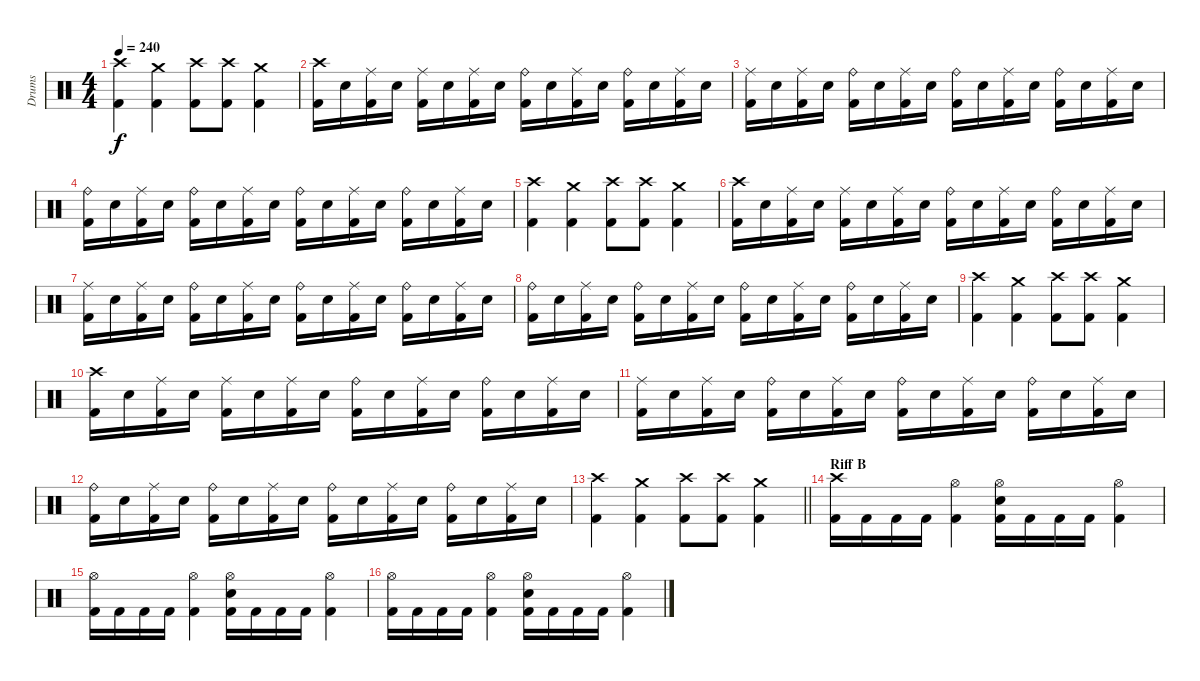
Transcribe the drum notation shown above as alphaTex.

\track ("Drums" "Drums") {instrument percussion}
\staff {score}
\articulation defaults
\ts (4 4)
\tempo 240
\clef neutral
\ks c
("Crash high (hit)" "Kick (hit) 2").4{dy f} ("Crash medium (hit)" "Kick (hit) 2").4 ("Crash high (hit)" "Kick (hit) 2").8 ("Crash high (hit)" "Kick (hit) 2").8 ("Crash medium (hit)" "Kick (hit) 2").4 |
("Crash high (hit)" "Kick (hit) 2").16 "Electric Snare (hit)".16 ("Ride (middle)" "Kick (hit) 2").16 "Electric Snare (hit)".16 ("Ride (middle)" "Kick (hit) 2").16 "Electric Snare (hit)".16 ("Ride (middle)" "Kick (hit) 2").16 "Electric Snare (hit)".16 ("Ride (bell)" "Kick (hit) 2").16 "Electric Snare (hit)".16 ("Ride (middle)" "Kick (hit) 2").16 "Electric Snare (hit)".16 ("Ride (bell)" "Kick (hit) 2").16 "Electric Snare (hit)".16 ("Ride (middle)" "Kick (hit) 2").16 "Electric Snare (hit)".16 |
("Ride (middle)" "Kick (hit) 2").16 "Electric Snare (hit)".16 ("Ride (middle)" "Kick (hit) 2").16 "Electric Snare (hit)".16 ("Ride (bell)" "Kick (hit) 2").16 "Electric Snare (hit)".16 ("Ride (middle)" "Kick (hit) 2").16 "Electric Snare (hit)".16 ("Ride (bell)" "Kick (hit) 2").16 "Electric Snare (hit)".16 ("Ride (middle)" "Kick (hit) 2").16 "Electric Snare (hit)".16 ("Ride (bell)" "Kick (hit) 2").16 "Electric Snare (hit)".16 ("Ride (middle)" "Kick (hit) 2").16 "Electric Snare (hit)".16 |
("Ride (bell)" "Kick (hit) 2").16 "Electric Snare (hit)".16 ("Ride (middle)" "Kick (hit) 2").16 "Electric Snare (hit)".16 ("Ride (bell)" "Kick (hit) 2").16 "Electric Snare (hit)".16 ("Ride (middle)" "Kick (hit) 2").16 "Electric Snare (hit)".16 ("Ride (bell)" "Kick (hit) 2").16 "Electric Snare (hit)".16 ("Ride (middle)" "Kick (hit) 2").16 "Electric Snare (hit)".16 ("Ride (bell)" "Kick (hit) 2").16 "Electric Snare (hit)".16 ("Ride (middle)" "Kick (hit) 2").16 "Electric Snare (hit)".16 |
("Crash high (hit)" "Kick (hit) 2").4 ("Crash medium (hit)" "Kick (hit) 2").4 ("Crash high (hit)" "Kick (hit) 2").8 ("Crash high (hit)" "Kick (hit) 2").8 ("Crash medium (hit)" "Kick (hit) 2").4 |
("Crash high (hit)" "Kick (hit) 2").16 "Electric Snare (hit)".16 ("Ride (middle)" "Kick (hit) 2").16 "Electric Snare (hit)".16 ("Ride (middle)" "Kick (hit) 2").16 "Electric Snare (hit)".16 ("Ride (middle)" "Kick (hit) 2").16 "Electric Snare (hit)".16 ("Ride (bell)" "Kick (hit) 2").16 "Electric Snare (hit)".16 ("Ride (middle)" "Kick (hit) 2").16 "Electric Snare (hit)".16 ("Ride (bell)" "Kick (hit) 2").16 "Electric Snare (hit)".16 ("Ride (middle)" "Kick (hit) 2").16 "Electric Snare (hit)".16 |
("Ride (middle)" "Kick (hit) 2").16 "Electric Snare (hit)".16 ("Ride (middle)" "Kick (hit) 2").16 "Electric Snare (hit)".16 ("Ride (bell)" "Kick (hit) 2").16 "Electric Snare (hit)".16 ("Ride (middle)" "Kick (hit) 2").16 "Electric Snare (hit)".16 ("Ride (bell)" "Kick (hit) 2").16 "Electric Snare (hit)".16 ("Ride (middle)" "Kick (hit) 2").16 "Electric Snare (hit)".16 ("Ride (bell)" "Kick (hit) 2").16 "Electric Snare (hit)".16 ("Ride (middle)" "Kick (hit) 2").16 "Electric Snare (hit)".16 |
("Ride (bell)" "Kick (hit) 2").16 "Electric Snare (hit)".16 ("Ride (middle)" "Kick (hit) 2").16 "Electric Snare (hit)".16 ("Ride (bell)" "Kick (hit) 2").16 "Electric Snare (hit)".16 ("Ride (middle)" "Kick (hit) 2").16 "Electric Snare (hit)".16 ("Ride (bell)" "Kick (hit) 2").16 "Electric Snare (hit)".16 ("Ride (middle)" "Kick (hit) 2").16 "Electric Snare (hit)".16 ("Ride (bell)" "Kick (hit) 2").16 "Electric Snare (hit)".16 ("Ride (middle)" "Kick (hit) 2").16 "Electric Snare (hit)".16 |
("Crash high (hit)" "Kick (hit) 2").4 ("Crash medium (hit)" "Kick (hit) 2").4 ("Crash high (hit)" "Kick (hit) 2").8 ("Crash high (hit)" "Kick (hit) 2").8 ("Crash medium (hit)" "Kick (hit) 2").4 |
("Crash high (hit)" "Kick (hit) 2").16 "Electric Snare (hit)".16 ("Ride (middle)" "Kick (hit) 2").16 "Electric Snare (hit)".16 ("Ride (middle)" "Kick (hit) 2").16 "Electric Snare (hit)".16 ("Ride (middle)" "Kick (hit) 2").16 "Electric Snare (hit)".16 ("Ride (bell)" "Kick (hit) 2").16 "Electric Snare (hit)".16 ("Ride (middle)" "Kick (hit) 2").16 "Electric Snare (hit)".16 ("Ride (bell)" "Kick (hit) 2").16 "Electric Snare (hit)".16 ("Ride (middle)" "Kick (hit) 2").16 "Electric Snare (hit)".16 |
("Ride (middle)" "Kick (hit) 2").16 "Electric Snare (hit)".16 ("Ride (middle)" "Kick (hit) 2").16 "Electric Snare (hit)".16 ("Ride (bell)" "Kick (hit) 2").16 "Electric Snare (hit)".16 ("Ride (middle)" "Kick (hit) 2").16 "Electric Snare (hit)".16 ("Ride (bell)" "Kick (hit) 2").16 "Electric Snare (hit)".16 ("Ride (middle)" "Kick (hit) 2").16 "Electric Snare (hit)".16 ("Ride (bell)" "Kick (hit) 2").16 "Electric Snare (hit)".16 ("Ride (middle)" "Kick (hit) 2").16 "Electric Snare (hit)".16 |
("Ride (bell)" "Kick (hit) 2").16 "Electric Snare (hit)".16 ("Ride (middle)" "Kick (hit) 2").16 "Electric Snare (hit)".16 ("Ride (bell)" "Kick (hit) 2").16 "Electric Snare (hit)".16 ("Ride (middle)" "Kick (hit) 2").16 "Electric Snare (hit)".16 ("Ride (bell)" "Kick (hit) 2").16 "Electric Snare (hit)".16 ("Ride (middle)" "Kick (hit) 2").16 "Electric Snare (hit)".16 ("Ride (bell)" "Kick (hit) 2").16 "Electric Snare (hit)".16 ("Ride (middle)" "Kick (hit) 2").16 "Electric Snare (hit)".16 |
\barLineRight lightlight
("Crash high (hit)" "Kick (hit) 2").4 ("Crash medium (hit)" "Kick (hit) 2").4 ("Crash high (hit)" "Kick (hit) 2").8 ("Crash high (hit)" "Kick (hit) 2").8 ("Crash medium (hit)" "Kick (hit) 2").4 |
\section ("" "Riff B")
("Crash high (hit)" "Kick (hit) 2").16 "Kick (hit) 2".16 "Kick (hit) 2".16 "Kick (hit) 2".16 ("Hi-Hat (open)" "Kick (hit) 2").4 ("Hi-Hat (open)" "Electric Snare (hit)" "Kick (hit) 2").16 "Kick (hit) 2".16 "Kick (hit) 2".16 "Kick (hit) 2".16 ("Hi-Hat (open)" "Kick (hit) 2").4 |
("Hi-Hat (open)" "Kick (hit) 2").16 "Kick (hit) 2".16 "Kick (hit) 2".16 "Kick (hit) 2".16 ("Hi-Hat (open)" "Kick (hit) 2").4 ("Hi-Hat (open)" "Electric Snare (hit)" "Kick (hit) 2").16 "Kick (hit) 2".16 "Kick (hit) 2".16 "Kick (hit) 2".16 ("Hi-Hat (open)" "Kick (hit) 2").4 |
("Hi-Hat (open)" "Kick (hit) 2").16 "Kick (hit) 2".16 "Kick (hit) 2".16 "Kick (hit) 2".16 ("Hi-Hat (open)" "Kick (hit) 2").4 ("Hi-Hat (open)" "Electric Snare (hit)" "Kick (hit) 2").16 "Kick (hit) 2".16 "Kick (hit) 2".16 "Kick (hit) 2".16 ("Hi-Hat (open)" "Kick (hit) 2").4
